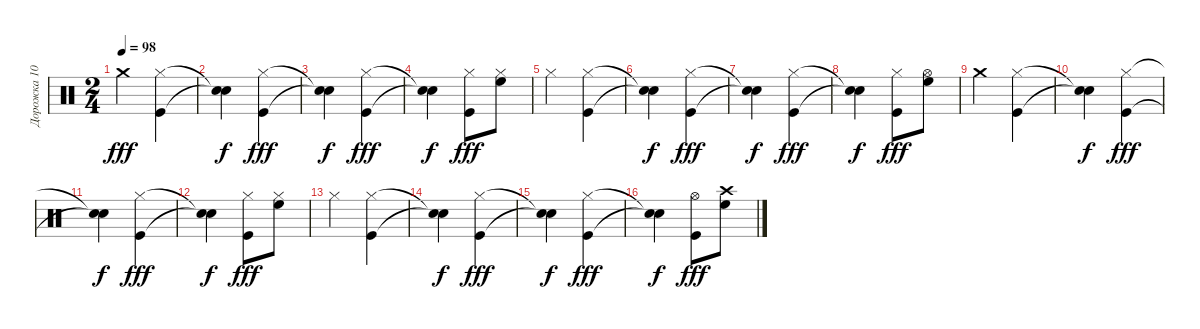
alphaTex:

\track ("Дорожка 10" "Дорожка 10") {instrument percussion}
\staff {score}
\articulation defaults
\ts (2 4)
\tempo 98
\clef neutral
\ks c "Crash medium (hit)".4{dy fff}
("Kick (hit)" "Hi-Hat (closed)").4 |
("Snare (hit)"{t} "Snare (hit)"{t}).4{dy f} ("Kick (hit)" "Hi-Hat (closed)").4{dy fff} |
("Snare (hit)"{t} "Snare (hit)"{t}).4{dy f} ("Kick (hit)" "Hi-Hat (closed)").4{dy fff} |
("Snare (hit)"{t} "Snare (hit)"{t}).4{dy f} ("Kick (hit)" "Hi-Hat (closed)").8{dy fff} ("High Floor Tom (hit)" "Hi-Hat (closed)").8 |
"Hi-Hat (closed)".4 ("Kick (hit)" "Hi-Hat (closed)").4 |
("Snare (hit)"{t} "Snare (hit)"{t}).4{dy f} ("Kick (hit)" "Hi-Hat (closed)").4{dy fff} |
("Snare (hit)"{t} "Snare (hit)"{t}).4{dy f} ("Kick (hit)" "Hi-Hat (closed)").4{dy fff} |
("Snare (hit)"{t} "Snare (hit)"{t}).4{dy f} ("Kick (hit)" "Hi-Hat (closed)").8{dy fff} ("High Floor Tom (hit)" "Hi-Hat (open)").8 |
"Crash medium (hit)".4 ("Kick (hit)" "Hi-Hat (closed)").4 |
("Snare (hit)"{t} "Snare (hit)"{t}).4{dy f} ("Kick (hit)" "Hi-Hat (closed)").4{dy fff} |
("Snare (hit)"{t} "Snare (hit)"{t}).4{dy f} ("Kick (hit)" "Hi-Hat (closed)").4{dy fff} |
("Snare (hit)"{t} "Snare (hit)"{t}).4{dy f} ("Kick (hit)" "Hi-Hat (closed)").8{dy fff} ("High Floor Tom (hit)" "Hi-Hat (closed)").8 |
"Hi-Hat (closed)".4 ("Kick (hit)" "Hi-Hat (closed)").4 |
("Snare (hit)"{t} "Snare (hit)"{t}).4{dy f} ("Kick (hit)" "Hi-Hat (closed)").4{dy fff} |
("Snare (hit)"{t} "Snare (hit)"{t}).4{dy f} ("Kick (hit)" "Hi-Hat (closed)").4{dy fff} |
("Snare (hit)"{t} "Snare (hit)"{t}).4{dy f} ("Kick (hit)" "Hi-Hat (open)").8{dy fff} ("High Floor Tom (hit)" "Crash high (hit)").8
